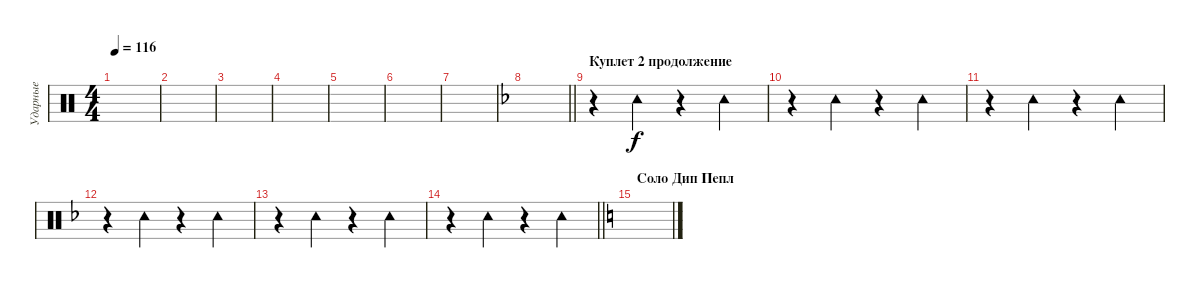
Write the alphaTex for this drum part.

\track ("Ударные" "Ударные") {instrument percussion}
\staff {score}
\articulation defaults
\ts (4 4)
\tempo 116
\clef neutral
\ks c
|
|
|
|
|
|
|
\barLineRight lightlight
\ks dminor
|
\section ("" "Куплет 2 продолжение")
r.4 "Tambourine (hit)".4 r.4 "Tambourine (hit)".4 |
r.4 "Tambourine (hit)".4 r.4 "Tambourine (hit)".4 |
r.4 "Tambourine (hit)".4 r.4 "Tambourine (hit)".4 |
r.4 "Tambourine (hit)".4 r.4 "Tambourine (hit)".4 |
r.4 "Tambourine (hit)".4 r.4 "Tambourine (hit)".4 |
\barLineRight lightlight
r.4 "Tambourine (hit)".4 r.4 "Tambourine (hit)".4 |
\section ("" "Соло Дип Пепл")
\ks c
